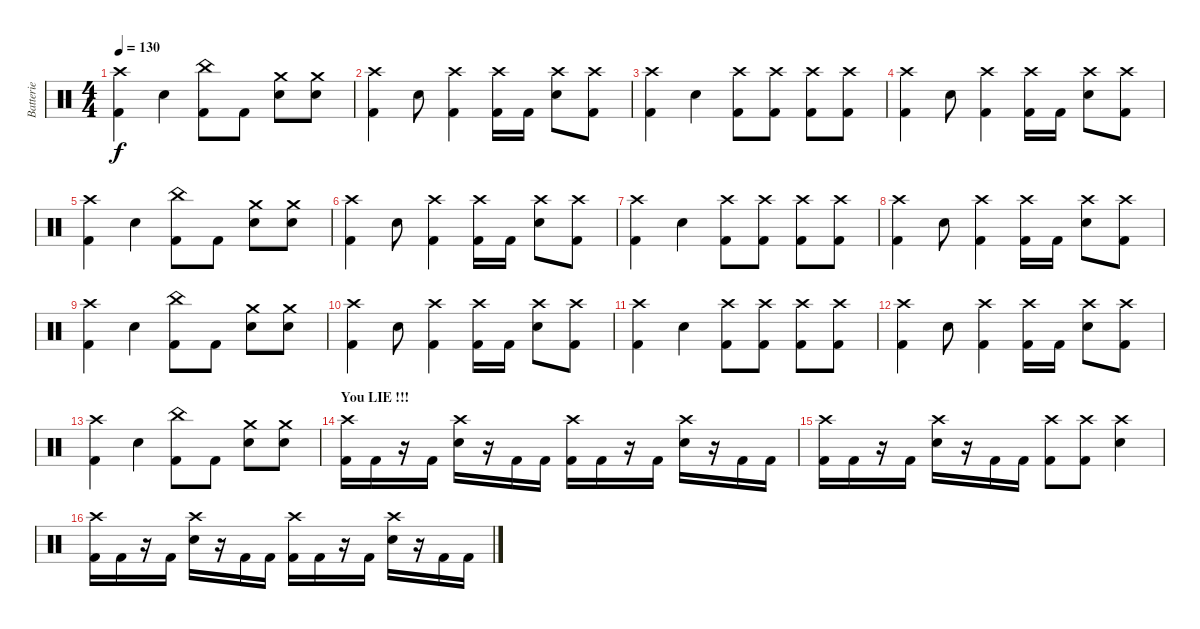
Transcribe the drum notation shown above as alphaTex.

\track ("Batterie" "Batterie") {instrument percussion}
\staff {score}
\articulation defaults
\ts (4 4)
\tempo 130
\clef neutral
\ks c
("Crash high (hit)" "Kick (hit) 2").4{dy f} "Electric Snare (hit)".4 ("China (hit)" "Kick (hit) 2").8 "Kick (hit) 2".8 ("Crash medium (hit)" "Electric Snare (hit)").8 ("Crash medium (hit)" "Electric Snare (hit)").8 |
("Crash high (hit)" "Kick (hit) 2").4 "Electric Snare (hit)".8 ("Crash high (hit)" "Kick (hit) 2").4 ("Crash high (hit)" "Kick (hit) 2").16 "Kick (hit) 2".16 ("Crash high (hit)" "Electric Snare (hit)").8 ("Crash high (hit)" "Kick (hit) 2").8 |
("Crash high (hit)" "Kick (hit) 2").4 "Electric Snare (hit)".4 ("Crash high (hit)" "Kick (hit) 2").8 ("Crash high (hit)" "Kick (hit) 2").8 ("Crash high (hit)" "Kick (hit) 2").8 ("Crash high (hit)" "Kick (hit) 2").8 |
("Crash high (hit)" "Kick (hit) 2").4 "Electric Snare (hit)".8 ("Crash high (hit)" "Kick (hit) 2").4 ("Crash high (hit)" "Kick (hit) 2").16 "Kick (hit) 2".16 ("Crash high (hit)" "Electric Snare (hit)").8 ("Crash high (hit)" "Kick (hit) 2").8 |
("Crash high (hit)" "Kick (hit) 2").4 "Electric Snare (hit)".4 ("China (hit)" "Kick (hit) 2").8 "Kick (hit) 2".8 ("Crash medium (hit)" "Electric Snare (hit)").8 ("Crash medium (hit)" "Electric Snare (hit)").8 |
("Crash high (hit)" "Kick (hit) 2").4 "Electric Snare (hit)".8 ("Crash high (hit)" "Kick (hit) 2").4 ("Crash high (hit)" "Kick (hit) 2").16 "Kick (hit) 2".16 ("Crash high (hit)" "Electric Snare (hit)").8 ("Crash high (hit)" "Kick (hit) 2").8 |
("Crash high (hit)" "Kick (hit) 2").4 "Electric Snare (hit)".4 ("Crash high (hit)" "Kick (hit) 2").8 ("Crash high (hit)" "Kick (hit) 2").8 ("Crash high (hit)" "Kick (hit) 2").8 ("Crash high (hit)" "Kick (hit) 2").8 |
("Crash high (hit)" "Kick (hit) 2").4 "Electric Snare (hit)".8 ("Crash high (hit)" "Kick (hit) 2").4 ("Crash high (hit)" "Kick (hit) 2").16 "Kick (hit) 2".16 ("Crash high (hit)" "Electric Snare (hit)").8 ("Crash high (hit)" "Kick (hit) 2").8 |
("Crash high (hit)" "Kick (hit) 2").4 "Electric Snare (hit)".4 ("China (hit)" "Kick (hit) 2").8 "Kick (hit) 2".8 ("Crash medium (hit)" "Electric Snare (hit)").8 ("Crash medium (hit)" "Electric Snare (hit)").8 |
("Crash high (hit)" "Kick (hit) 2").4 "Electric Snare (hit)".8 ("Crash high (hit)" "Kick (hit) 2").4 ("Crash high (hit)" "Kick (hit) 2").16 "Kick (hit) 2".16 ("Crash high (hit)" "Electric Snare (hit)").8 ("Crash high (hit)" "Kick (hit) 2").8 |
("Crash high (hit)" "Kick (hit) 2").4 "Electric Snare (hit)".4 ("Crash high (hit)" "Kick (hit) 2").8 ("Crash high (hit)" "Kick (hit) 2").8 ("Crash high (hit)" "Kick (hit) 2").8 ("Crash high (hit)" "Kick (hit) 2").8 |
("Crash high (hit)" "Kick (hit) 2").4 "Electric Snare (hit)".8 ("Crash high (hit)" "Kick (hit) 2").4 ("Crash high (hit)" "Kick (hit) 2").16 "Kick (hit) 2".16 ("Crash high (hit)" "Electric Snare (hit)").8 ("Crash high (hit)" "Kick (hit) 2").8 |
("Crash high (hit)" "Kick (hit) 2").4 "Electric Snare (hit)".4 ("China (hit)" "Kick (hit) 2").8 "Kick (hit) 2".8 ("Crash medium (hit)" "Electric Snare (hit)").8 ("Crash medium (hit)" "Electric Snare (hit)").8 |
\section ("" "You LIE !!!")
("Crash high (hit)" "Kick (hit) 2").16 "Kick (hit) 2".16 r.16 "Kick (hit) 2".16 ("Crash high (hit)" "Electric Snare (hit)").16 r.16 "Kick (hit) 2".16 "Kick (hit) 2".16 ("Crash high (hit)" "Kick (hit) 2").16 "Kick (hit) 2".16 r.16 "Kick (hit) 2".16 ("Crash high (hit)" "Electric Snare (hit)").16 r.16 "Kick (hit) 2".16 "Kick (hit) 2".16 |
("Crash high (hit)" "Kick (hit) 2").16 "Kick (hit) 2".16 r.16 "Kick (hit) 2".16 ("Crash high (hit)" "Electric Snare (hit)").16 r.16 "Kick (hit) 2".16 "Kick (hit) 2".16 ("Crash high (hit)" "Kick (hit) 2").8 ("Crash high (hit)" "Kick (hit) 2").8 ("Crash high (hit)" "Electric Snare (hit)").4 |
("Crash high (hit)" "Kick (hit) 2").16 "Kick (hit) 2".16 r.16 "Kick (hit) 2".16 ("Crash high (hit)" "Electric Snare (hit)").16 r.16 "Kick (hit) 2".16 "Kick (hit) 2".16 ("Crash high (hit)" "Kick (hit) 2").16 "Kick (hit) 2".16 r.16 "Kick (hit) 2".16 ("Crash high (hit)" "Electric Snare (hit)").16 r.16 "Kick (hit) 2".16 "Kick (hit) 2".16
